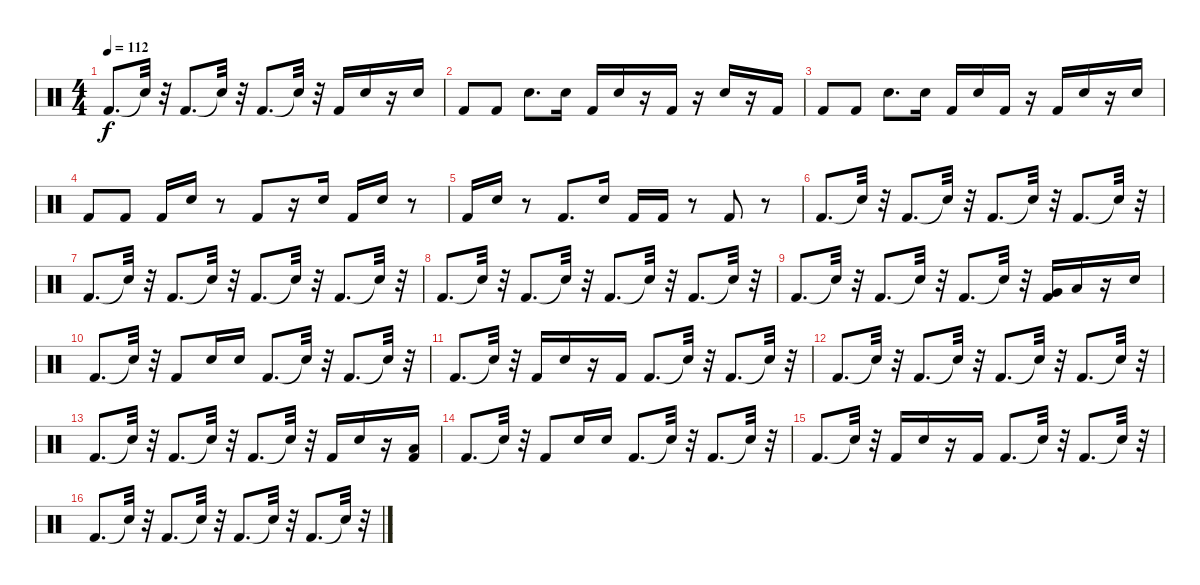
\track "" {instrument percussion}
\staff {score}
\articulation defaults
\ts (4 4)
\tempo 112
\clef neutral
\ks c "Kick (hit) 2".8{d dy f} "Snare (hit)"{t}.32
r.32 "Kick (hit) 2".8{d} "Snare (hit)"{t}.32 r.32 "Kick (hit) 2".8{d} "Snare (hit)"{t}.32 r.32 "Kick (hit) 2".16 "Snare (hit) 2".16 r.16 "Snare (hit) 2".16 |
"Kick (hit) 2".8 "Kick (hit) 2".8 "Snare (hit) 2".8{d} "Snare (hit) 2".16 "Kick (hit) 2".16 "Snare (hit) 2".16 r.16 "Kick (hit) 2".16 r.16 "Snare (hit) 2".16 r.16 "Kick (hit) 2".16 |
"Kick (hit) 2".8 "Kick (hit) 2".8 "Snare (hit) 2".8{d} "Snare (hit) 2".16 "Kick (hit) 2".16 "Snare (hit) 2".16 "Kick (hit) 2".16 r.16 "Kick (hit) 2".16 "Snare (hit) 2".16 r.16 "Snare (hit) 2".16 |
"Kick (hit) 2".8 "Kick (hit) 2".8 "Kick (hit) 2".16 "Snare (hit) 2".16 r.8 "Kick (hit) 2".8 r.16 "Snare (hit) 2".16 "Kick (hit) 2".16 "Snare (hit) 2".16 r.8 |
"Kick (hit) 2".16 "Snare (hit) 2".16 r.8 "Kick (hit) 2".8{d} "Snare (hit) 2".16 "Kick (hit) 2".16 "Kick (hit) 2".16 r.8 "Kick (hit) 2".8 r.8 |
"Kick (hit) 2".8{d} "Snare (hit)"{t}.32 r.32 "Kick (hit) 2".8{d} "Snare (hit)"{t}.32 r.32 "Kick (hit) 2".8{d} "Snare (hit)"{t}.32 r.32 "Kick (hit) 2".8{d} "Snare (hit)"{t}.32 r.32 |
"Kick (hit) 2".8{d} "Snare (hit)"{t}.32 r.32 "Kick (hit) 2".8{d} "Snare (hit)"{t}.32 r.32 "Kick (hit) 2".8{d} "Snare (hit)"{t}.32 r.32 "Kick (hit) 2".8{d} "Snare (hit)"{t}.32 r.32 |
"Kick (hit) 2".8{d} "Snare (hit)"{t}.32 r.32 "Kick (hit) 2".8{d} "Snare (hit)"{t}.32 r.32 "Kick (hit) 2".8{d} "Snare (hit)"{t}.32 r.32 "Kick (hit) 2".8{d} "Snare (hit)"{t}.32 r.32 |
"Kick (hit) 2".8{d} "Snare (hit)"{t}.32 r.32 "Kick (hit) 2".8{d} "Snare (hit)"{t}.32 r.32 "Kick (hit) 2".8{d} "Snare (hit)"{t}.32 r.32 ("Kick (hit) 2" "Very Low Tom (hit)").16 "Low Floor Tom (hit)".16 r.16 "Snare (hit) 2".16 |
"Kick (hit) 2".8{d} "Snare (hit)"{t}.32 r.32 "Kick (hit) 2".8 "Snare (hit) 2".16 "Snare (hit) 2".16 "Kick (hit) 2".8{d} "Snare (hit)"{t}.32 r.32 "Kick (hit) 2".8{d} "Snare (hit)"{t}.32 r.32 |
"Kick (hit) 2".8{d} "Snare (hit)"{t}.32 r.32 "Kick (hit) 2".16 "Snare (hit) 2".16 r.16 "Kick (hit) 2".16 "Kick (hit) 2".8{d} "Snare (hit)"{t}.32 r.32 "Kick (hit) 2".8{d} "Snare (hit)"{t}.32 r.32 |
"Kick (hit) 2".8{d} "Snare (hit)"{t}.32 r.32 "Kick (hit) 2".8{d} "Snare (hit)"{t}.32 r.32 "Kick (hit) 2".8{d} "Snare (hit)"{t}.32 r.32 "Kick (hit) 2".8{d} "Snare (hit)"{t}.32 r.32 |
"Kick (hit) 2".8{d} "Snare (hit)"{t}.32 r.32 "Kick (hit) 2".8{d} "Snare (hit)"{t}.32 r.32 "Kick (hit) 2".8{d} "Snare (hit)"{t}.32 r.32 "Kick (hit) 2".16 "Snare (hit) 2".16 r.16 ("Kick (hit) 2" "Low Floor Tom (hit)").16 |
"Kick (hit) 2".8{d} "Snare (hit)"{t}.32 r.32 "Kick (hit) 2".8 "Snare (hit) 2".16 "Snare (hit) 2".16 "Kick (hit) 2".8{d} "Snare (hit)"{t}.32 r.32 "Kick (hit) 2".8{d} "Snare (hit)"{t}.32 r.32 |
"Kick (hit) 2".8{d} "Snare (hit)"{t}.32 r.32 "Kick (hit) 2".16 "Snare (hit) 2".16 r.16 "Kick (hit) 2".16 "Kick (hit) 2".8{d} "Snare (hit)"{t}.32 r.32 "Kick (hit) 2".8{d} "Snare (hit)"{t}.32 r.32 |
"Kick (hit) 2".8{d} "Snare (hit)"{t}.32 r.32 "Kick (hit) 2".8{d} "Snare (hit)"{t}.32 r.32 "Kick (hit) 2".8{d} "Snare (hit)"{t}.32 r.32 "Kick (hit) 2".8{d} "Snare (hit)"{t}.32 r.32
